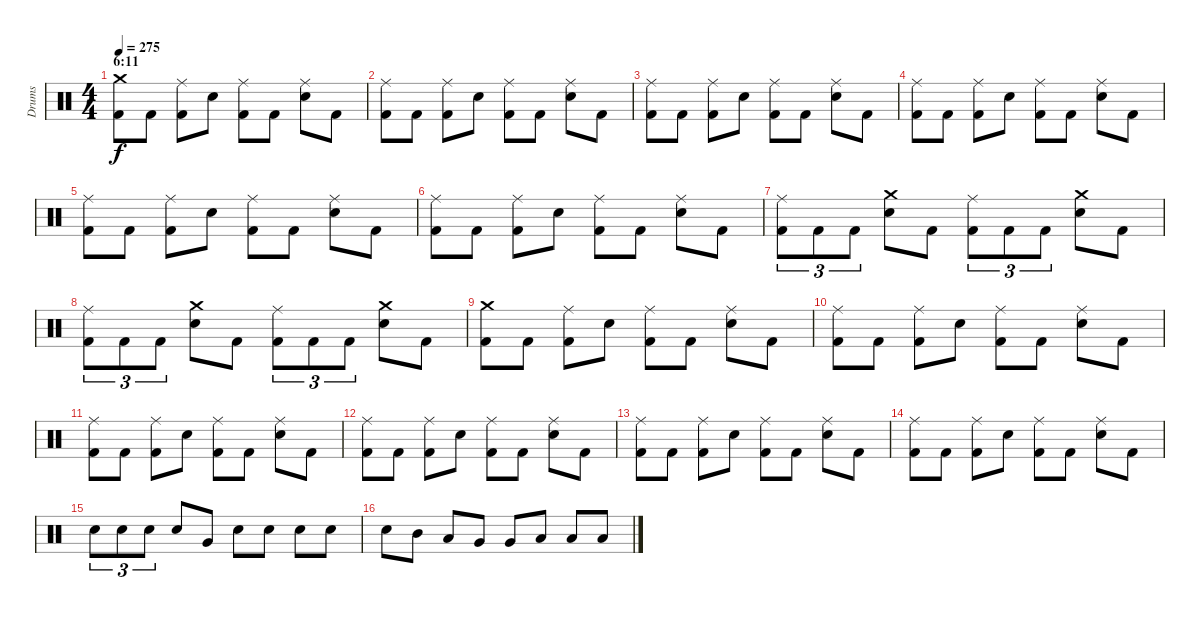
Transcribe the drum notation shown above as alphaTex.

\track ("Drums" "Drums") {instrument percussion}
\staff {score}
\articulation defaults
\ts (4 4)
\section ("" "6:11")
\tempo 275
\clef neutral
\ks c
("Crash medium (hit)" "Kick (hit) 2").8{dy f} "Kick (hit) 2".8 ("Ride (middle)" "Kick (hit) 2").8 "Electric Snare (hit)".8 ("Ride (middle)" "Kick (hit) 2").8 "Kick (hit) 2".8 ("Ride (middle)" "Electric Snare (hit)").8 "Kick (hit) 2".8 |
("Ride (middle)" "Kick (hit) 2").8 "Kick (hit) 2".8 ("Ride (middle)" "Kick (hit) 2").8 "Electric Snare (hit)".8 ("Ride (middle)" "Kick (hit) 2").8 "Kick (hit) 2".8 ("Ride (middle)" "Electric Snare (hit)").8 "Kick (hit) 2".8 |
("Ride (middle)" "Kick (hit) 2").8 "Kick (hit) 2".8 ("Ride (middle)" "Kick (hit) 2").8 "Electric Snare (hit)".8 ("Ride (middle)" "Kick (hit) 2").8 "Kick (hit) 2".8 ("Ride (middle)" "Electric Snare (hit)").8 "Kick (hit) 2".8 |
("Ride (middle)" "Kick (hit) 2").8 "Kick (hit) 2".8 ("Ride (middle)" "Kick (hit) 2").8 "Electric Snare (hit)".8 ("Ride (middle)" "Kick (hit) 2").8 "Kick (hit) 2".8 ("Ride (middle)" "Electric Snare (hit)").8 "Kick (hit) 2".8 |
("Ride (middle)" "Kick (hit) 2").8 "Kick (hit) 2".8 ("Ride (middle)" "Kick (hit) 2").8 "Electric Snare (hit)".8 ("Ride (middle)" "Kick (hit) 2").8 "Kick (hit) 2".8 ("Ride (middle)" "Electric Snare (hit)").8 "Kick (hit) 2".8 |
("Ride (middle)" "Kick (hit) 2").8 "Kick (hit) 2".8 ("Ride (middle)" "Kick (hit) 2").8 "Electric Snare (hit)".8 ("Ride (middle)" "Kick (hit) 2").8 "Kick (hit) 2".8 ("Ride (middle)" "Electric Snare (hit)").8 "Kick (hit) 2".8 |
("Ride (middle)" "Kick (hit) 2").8{tu (3 2)} "Kick (hit) 2".8{tu (3 2)} "Kick (hit) 2".8{tu (3 2)} ("Crash medium (hit)" "Electric Snare (hit)").8 "Kick (hit) 2".8 ("Ride (middle)" "Kick (hit) 2").8{tu (3 2)} "Kick (hit) 2".8{tu (3 2)} "Kick (hit) 2".8{tu (3 2)} ("Crash medium (hit)" "Electric Snare (hit)").8 "Kick (hit) 2".8 |
("Ride (middle)" "Kick (hit) 2").8{tu (3 2)} "Kick (hit) 2".8{tu (3 2)} "Kick (hit) 2".8{tu (3 2)} ("Crash medium (hit)" "Electric Snare (hit)").8 "Kick (hit) 2".8 ("Ride (middle)" "Kick (hit) 2").8{tu (3 2)} "Kick (hit) 2".8{tu (3 2)} "Kick (hit) 2".8{tu (3 2)} ("Crash medium (hit)" "Electric Snare (hit)").8 "Kick (hit) 2".8 |
("Crash medium (hit)" "Kick (hit) 2").8 "Kick (hit) 2".8 ("Ride (middle)" "Kick (hit) 2").8 "Electric Snare (hit)".8 ("Ride (middle)" "Kick (hit) 2").8 "Kick (hit) 2".8 ("Ride (middle)" "Electric Snare (hit)").8 "Kick (hit) 2".8 |
("Ride (middle)" "Kick (hit) 2").8 "Kick (hit) 2".8 ("Ride (middle)" "Kick (hit) 2").8 "Electric Snare (hit)".8 ("Ride (middle)" "Kick (hit) 2").8 "Kick (hit) 2".8 ("Ride (middle)" "Electric Snare (hit)").8 "Kick (hit) 2".8 |
("Ride (middle)" "Kick (hit) 2").8 "Kick (hit) 2".8 ("Ride (middle)" "Kick (hit) 2").8 "Electric Snare (hit)".8 ("Ride (middle)" "Kick (hit) 2").8 "Kick (hit) 2".8 ("Ride (middle)" "Electric Snare (hit)").8 "Kick (hit) 2".8 |
("Ride (middle)" "Kick (hit) 2").8 "Kick (hit) 2".8 ("Ride (middle)" "Kick (hit) 2").8 "Electric Snare (hit)".8 ("Ride (middle)" "Kick (hit) 2").8 "Kick (hit) 2".8 ("Ride (middle)" "Electric Snare (hit)").8 "Kick (hit) 2".8 |
("Ride (middle)" "Kick (hit) 2").8 "Kick (hit) 2".8 ("Ride (middle)" "Kick (hit) 2").8 "Electric Snare (hit)".8 ("Ride (middle)" "Kick (hit) 2").8 "Kick (hit) 2".8 ("Ride (middle)" "Electric Snare (hit)").8 "Kick (hit) 2".8 |
("Ride (middle)" "Kick (hit) 2").8 "Kick (hit) 2".8 ("Ride (middle)" "Kick (hit) 2").8 "Electric Snare (hit)".8 ("Ride (middle)" "Kick (hit) 2").8 "Kick (hit) 2".8 ("Ride (middle)" "Electric Snare (hit)").8 "Kick (hit) 2".8 |
"Electric Snare (hit)".8{tu (3 2)} "Electric Snare (hit)".8{tu (3 2)} "Electric Snare (hit)".8{tu (3 2)} "Electric Snare (hit)".8 "Very Low Tom (hit)".8 "Electric Snare (hit)".8 "Electric Snare (hit)".8 "Electric Snare (hit)".8 "Electric Snare (hit)".8 |
"Electric Snare (hit)".8 "Mid Tom (hit)".8 "Low Tom (hit)".8 "Very Low Tom (hit)".8 "Very Low Tom (hit)".8 "Low Floor Tom (hit)".8 "Low Floor Tom (hit)".8 "Low Floor Tom (hit)".8
